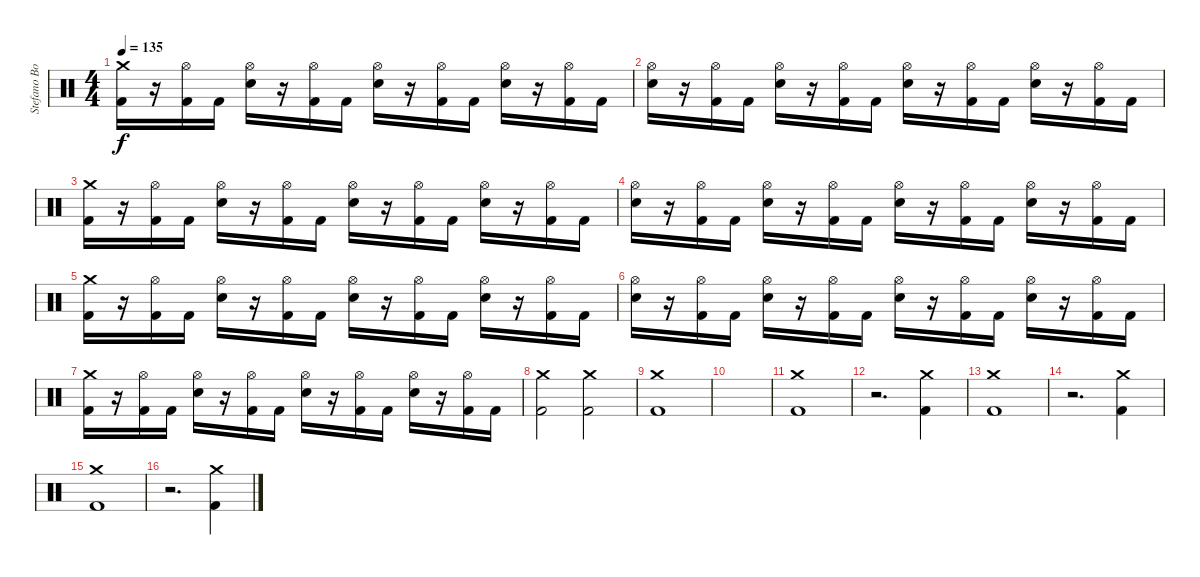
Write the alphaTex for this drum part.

\track ("Stefano Bonini" "Stefano Bo") {instrument percussion}
\staff {score}
\articulation defaults
\ts (4 4)
\tempo 135
\clef neutral
\ks c
("Crash medium (hit)" "Kick (hit) 2").16{dy f} r.16 ("Hi-Hat (open)" "Kick (hit) 2").16 "Kick (hit) 2".16 ("Hi-Hat (open)" "Electric Snare (hit)").16 r.16 ("Hi-Hat (open)" "Kick (hit) 2").16 "Kick (hit) 2".16 ("Hi-Hat (open)" "Electric Snare (hit)").16 r.16 ("Hi-Hat (open)" "Kick (hit) 2").16 "Kick (hit) 2".16 ("Hi-Hat (open)" "Electric Snare (hit)").16 r.16 ("Hi-Hat (open)" "Kick (hit) 2").16 "Kick (hit) 2".16 |
("Hi-Hat (open)" "Electric Snare (hit)").16 r.16 ("Hi-Hat (open)" "Kick (hit) 2").16 "Kick (hit) 2".16 ("Hi-Hat (open)" "Electric Snare (hit)").16 r.16 ("Hi-Hat (open)" "Kick (hit) 2").16 "Kick (hit) 2".16 ("Hi-Hat (open)" "Electric Snare (hit)").16 r.16 ("Hi-Hat (open)" "Kick (hit) 2").16 "Kick (hit) 2".16 ("Hi-Hat (open)" "Electric Snare (hit)").16 r.16 ("Hi-Hat (open)" "Kick (hit) 2").16 "Kick (hit) 2".16 |
("Crash medium (hit)" "Kick (hit) 2").16 r.16 ("Hi-Hat (open)" "Kick (hit) 2").16 "Kick (hit) 2".16 ("Hi-Hat (open)" "Electric Snare (hit)").16 r.16 ("Hi-Hat (open)" "Kick (hit) 2").16 "Kick (hit) 2".16 ("Hi-Hat (open)" "Electric Snare (hit)").16 r.16 ("Hi-Hat (open)" "Kick (hit) 2").16 "Kick (hit) 2".16 ("Hi-Hat (open)" "Electric Snare (hit)").16 r.16 ("Hi-Hat (open)" "Kick (hit) 2").16 "Kick (hit) 2".16 |
("Hi-Hat (open)" "Electric Snare (hit)").16 r.16 ("Hi-Hat (open)" "Kick (hit) 2").16 "Kick (hit) 2".16 ("Hi-Hat (open)" "Electric Snare (hit)").16 r.16 ("Hi-Hat (open)" "Kick (hit) 2").16 "Kick (hit) 2".16 ("Hi-Hat (open)" "Electric Snare (hit)").16 r.16 ("Hi-Hat (open)" "Kick (hit) 2").16 "Kick (hit) 2".16 ("Hi-Hat (open)" "Electric Snare (hit)").16 r.16 ("Hi-Hat (open)" "Kick (hit) 2").16 "Kick (hit) 2".16 |
("Crash medium (hit)" "Kick (hit) 2").16 r.16 ("Hi-Hat (open)" "Kick (hit) 2").16 "Kick (hit) 2".16 ("Hi-Hat (open)" "Electric Snare (hit)").16 r.16 ("Hi-Hat (open)" "Kick (hit) 2").16 "Kick (hit) 2".16 ("Hi-Hat (open)" "Electric Snare (hit)").16 r.16 ("Hi-Hat (open)" "Kick (hit) 2").16 "Kick (hit) 2".16 ("Hi-Hat (open)" "Electric Snare (hit)").16 r.16 ("Hi-Hat (open)" "Kick (hit) 2").16 "Kick (hit) 2".16 |
("Hi-Hat (open)" "Electric Snare (hit)").16 r.16 ("Hi-Hat (open)" "Kick (hit) 2").16 "Kick (hit) 2".16 ("Hi-Hat (open)" "Electric Snare (hit)").16 r.16 ("Hi-Hat (open)" "Kick (hit) 2").16 "Kick (hit) 2".16 ("Hi-Hat (open)" "Electric Snare (hit)").16 r.16 ("Hi-Hat (open)" "Kick (hit) 2").16 "Kick (hit) 2".16 ("Hi-Hat (open)" "Electric Snare (hit)").16 r.16 ("Hi-Hat (open)" "Kick (hit) 2").16 "Kick (hit) 2".16 |
("Crash medium (hit)" "Kick (hit) 2").16 r.16 ("Hi-Hat (open)" "Kick (hit) 2").16 "Kick (hit) 2".16 ("Hi-Hat (open)" "Electric Snare (hit)").16 r.16 ("Hi-Hat (open)" "Kick (hit) 2").16 "Kick (hit) 2".16 ("Hi-Hat (open)" "Electric Snare (hit)").16 r.16 ("Hi-Hat (open)" "Kick (hit) 2").16 "Kick (hit) 2".16 ("Hi-Hat (open)" "Electric Snare (hit)").16 r.16 ("Hi-Hat (open)" "Kick (hit) 2").16 "Kick (hit) 2".16 |
("Crash medium (hit)" "Kick (hit) 2").2 ("Crash medium (hit)" "Kick (hit) 2").2 |
("Crash medium (hit)" "Kick (hit) 2").1 |
|
("Crash medium (hit)" "Kick (hit) 2").1 |
r.2{d} ("Crash medium (hit)" "Kick (hit) 2").4 |
("Crash medium (hit)" "Kick (hit) 2").1 |
r.2{d} ("Crash medium (hit)" "Kick (hit) 2").4 |
("Crash medium (hit)" "Kick (hit) 2").1 |
r.2{d} ("Crash medium (hit)" "Kick (hit) 2").4
